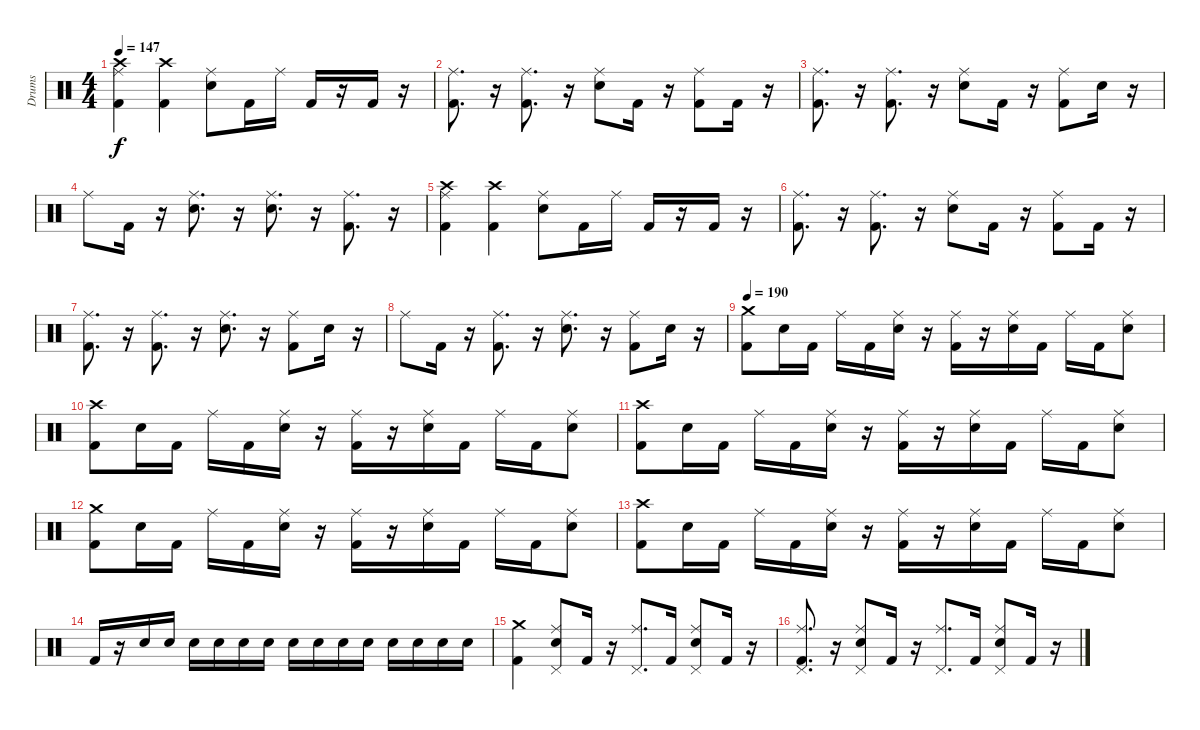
\track ("Drums" "Drums") {instrument percussion}
\staff {score}
\articulation defaults
\ts (4 4)
\tempo 147
\clef neutral
\ks c
("Kick (hit) 2" "Ride (middle)" "Crash high (hit)").4{dy f} ("Kick (hit) 2" "Crash high (hit)").4 ("Electric Snare (hit)" "Ride (middle)").8 "Kick (hit) 2".16 "Ride (middle)".16 "Kick (hit) 2".16 r.16 "Kick (hit) 2".16 r.16 |
("Kick (hit) 2" "Ride (middle)").8{d} r.16 ("Kick (hit) 2" "Ride (middle)").8{d} r.16 ("Electric Snare (hit)" "Ride (middle)").8 "Kick (hit) 2".16 r.16 ("Kick (hit) 2" "Ride (middle)").8 "Kick (hit) 2".16 r.16 |
("Ride (middle)" "Kick (hit) 2").8{d} r.16 ("Ride (middle)" "Kick (hit) 2").8{d} r.16 ("Ride (middle)" "Electric Snare (hit)").8 "Kick (hit) 2".16 r.16 ("Ride (middle)" "Kick (hit) 2").8 "Electric Snare (hit)".16 r.16 |
"Ride (middle)".8 "Kick (hit) 2".16 r.16 ("Ride (middle)" "Electric Snare (hit)").8{d} r.16 ("Ride (middle)" "Electric Snare (hit)").8{d} r.16 ("Ride (middle)" "Kick (hit) 2").8{d} r.16 |
("Kick (hit) 2" "Ride (middle)" "Crash high (hit)").4 ("Kick (hit) 2" "Crash high (hit)").4 ("Electric Snare (hit)" "Ride (middle)").8 "Kick (hit) 2".16 "Ride (middle)".16 "Kick (hit) 2".16 r.16 "Kick (hit) 2".16 r.16 |
("Kick (hit) 2" "Ride (middle)").8{d} r.16 ("Kick (hit) 2" "Ride (middle)").8{d} r.16 ("Electric Snare (hit)" "Ride (middle)").8 "Kick (hit) 2".16 r.16 ("Kick (hit) 2" "Ride (middle)").8 "Kick (hit) 2".16 r.16 |
("Kick (hit) 2" "Ride (middle)").8{d} r.16 ("Kick (hit) 2" "Ride (middle)").8{d} r.16 ("Electric Snare (hit)" "Ride (middle)").8{d} r.16 ("Kick (hit) 2" "Ride (middle)").8 "Electric Snare (hit)".16 r.16 |
"Ride (middle)".8 "Kick (hit) 2".16 r.16 ("Kick (hit) 2" "Ride (middle)").8{d} r.16 ("Electric Snare (hit)" "Ride (middle)").8{d} r.16 ("Kick (hit) 2" "Ride (middle)").8 "Electric Snare (hit)".16 r.16 |
\tempo 190
("Kick (hit) 2" "Crash medium (hit)").8 "Electric Snare (hit)".16 "Kick (hit) 2".16 "Ride (middle)".16 "Kick (hit) 2".16 ("Electric Snare (hit)" "Ride (middle)").16 r.16 ("Kick (hit) 2" "Ride (middle)").16 r.16 ("Electric Snare (hit)" "Ride (middle)").16 "Kick (hit) 2".16 "Ride (middle)".16 "Kick (hit) 2".16 ("Electric Snare (hit)" "Ride (middle)").8 |
("Kick (hit) 2" "Crash high (hit)").8 "Electric Snare (hit)".16 "Kick (hit) 2".16 "Ride (middle)".16 "Kick (hit) 2".16 ("Electric Snare (hit)" "Ride (middle)").16 r.16 ("Kick (hit) 2" "Ride (middle)").16 r.16 ("Electric Snare (hit)" "Ride (middle)").16 "Kick (hit) 2".16 "Ride (middle)".16 "Kick (hit) 2".16 ("Electric Snare (hit)" "Ride (middle)").8 |
("Kick (hit) 2" "Crash high (hit)").8 "Electric Snare (hit)".16 "Kick (hit) 2".16 "Ride (middle)".16 "Kick (hit) 2".16 ("Electric Snare (hit)" "Ride (middle)").16 r.16 ("Kick (hit) 2" "Ride (middle)").16 r.16 ("Electric Snare (hit)" "Ride (middle)").16 "Kick (hit) 2".16 "Ride (middle)".16 "Kick (hit) 2".16 ("Electric Snare (hit)" "Ride (middle)").8 |
("Kick (hit) 2" "Crash medium (hit)").8 "Electric Snare (hit)".16 "Kick (hit) 2".16 "Ride (middle)".16 "Kick (hit) 2".16 ("Electric Snare (hit)" "Ride (middle)").16 r.16 ("Kick (hit) 2" "Ride (middle)").16 r.16 ("Electric Snare (hit)" "Ride (middle)").16 "Kick (hit) 2".16 "Ride (middle)".16 "Kick (hit) 2".16 ("Electric Snare (hit)" "Ride (middle)").8 |
("Kick (hit) 2" "Crash high (hit)").8 "Electric Snare (hit)".16 "Kick (hit) 2".16 "Ride (middle)".16 "Kick (hit) 2".16 ("Electric Snare (hit)" "Ride (middle)").16 r.16 ("Kick (hit) 2" "Ride (middle)").16 r.16 ("Electric Snare (hit)" "Ride (middle)").16 "Kick (hit) 2".16 "Ride (middle)".16 "Kick (hit) 2".16 ("Electric Snare (hit)" "Ride (middle)").8 |
"Kick (hit) 2".16 r.16 "Electric Snare (hit)".16 "Electric Snare (hit)".16 "Electric Snare (hit)".16 "Electric Snare (hit)".16 "Electric Snare (hit)".16 "Electric Snare (hit)".16 "Electric Snare (hit)".16 "Electric Snare (hit)".16 "Electric Snare (hit)".16 "Electric Snare (hit)".16 "Electric Snare (hit)".16 "Electric Snare (hit)".16 "Electric Snare (hit)".16 "Electric Snare (hit)".16 |
("Kick (hit) 2" "Crash medium (hit)").4 ("Electric Snare (hit)" "Ride (middle)" "Pedal Hi-Hat (hit)").8 "Kick (hit) 2".16 r.16 ("Ride (middle)" "Pedal Hi-Hat (hit)").8{d} "Kick (hit) 2".16 ("Electric Snare (hit)" "Ride (middle)" "Pedal Hi-Hat (hit)").8 "Kick (hit) 2".16 r.16 |
("Kick (hit) 2" "Ride (middle)" "Pedal Hi-Hat (hit)").8{d} r.16 ("Electric Snare (hit)" "Ride (middle)" "Pedal Hi-Hat (hit)").8 "Kick (hit) 2".16 r.16 ("Ride (middle)" "Pedal Hi-Hat (hit)").8{d} "Kick (hit) 2".16 ("Electric Snare (hit)" "Ride (middle)" "Pedal Hi-Hat (hit)").8 "Kick (hit) 2".16 r.16
